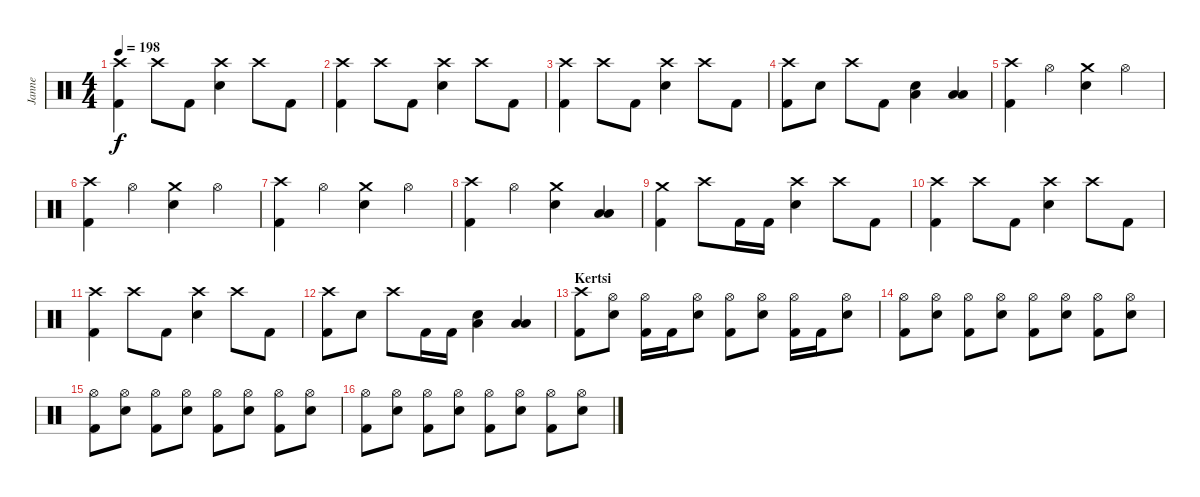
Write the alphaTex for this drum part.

\track ("Janne" "Janne") {instrument percussion}
\staff {score}
\articulation defaults
\ts (4 4)
\tempo 198
\clef neutral
\ks c
("Crash high (hit)" "Kick (hit) 2").4{dy f} "Crash high (hit)".8 "Kick (hit) 2".8 ("Crash high (hit)" "Electric Snare (hit)").4 "Crash high (hit)".8 "Kick (hit) 2".8 |
("Crash high (hit)" "Kick (hit) 2").4 "Crash high (hit)".8 "Kick (hit) 2".8 ("Crash high (hit)" "Electric Snare (hit)").4 "Crash high (hit)".8 "Kick (hit) 2".8 |
("Crash high (hit)" "Kick (hit) 2").4 "Crash high (hit)".8 "Kick (hit) 2".8 ("Crash high (hit)" "Electric Snare (hit)").4 "Crash high (hit)".8 "Kick (hit) 2".8 |
("Crash high (hit)" "Kick (hit) 2").8 "Electric Snare (hit)".8 "Crash high (hit)".8 "Kick (hit) 2".8 ("Electric Snare (hit)" "Low Floor Tom (hit)").4 ("Low Tom (hit)" "Low Floor Tom (hit)").4 |
("Crash high (hit)" "Kick (hit) 2").4 "Hi-Hat (open)".4 ("Crash medium (hit)" "Electric Snare (hit)").4 "Hi-Hat (open)".4 |
("Crash high (hit)" "Kick (hit) 2").4 "Hi-Hat (open)".4 ("Crash medium (hit)" "Electric Snare (hit)").4 "Hi-Hat (open)".4 |
("Crash high (hit)" "Kick (hit) 2").4 "Hi-Hat (open)".4 ("Crash medium (hit)" "Electric Snare (hit)").4 "Hi-Hat (open)".4 |
("Crash high (hit)" "Kick (hit) 2").4 "Hi-Hat (open)".4 ("Crash medium (hit)" "Electric Snare (hit)").4 ("Low Tom (hit)" "Low Floor Tom (hit)").4 |
("Crash medium (hit)" "Kick (hit) 2").4 "Crash high (hit)".8 "Kick (hit) 2".16 "Kick (hit) 2".16 ("Crash high (hit)" "Electric Snare (hit)").4 "Crash high (hit)".8 "Kick (hit) 2".8 |
("Crash high (hit)" "Kick (hit) 2").4 "Crash high (hit)".8 "Kick (hit) 2".8 ("Crash high (hit)" "Electric Snare (hit)").4 "Crash high (hit)".8 "Kick (hit) 2".8 |
("Crash high (hit)" "Kick (hit) 2").4 "Crash high (hit)".8 "Kick (hit) 2".8 ("Crash high (hit)" "Electric Snare (hit)").4 "Crash high (hit)".8 "Kick (hit) 2".8 |
("Crash high (hit)" "Kick (hit) 2").8 "Electric Snare (hit)".8 "Crash high (hit)".8 "Kick (hit) 2".16 "Kick (hit) 2".16 ("Electric Snare (hit)" "Low Floor Tom (hit)").4 ("Low Tom (hit)" "Low Floor Tom (hit)").4 |
\section ("" "Kertsi")
("Crash high (hit)" "Kick (hit) 2").8 ("Hi-Hat (open)" "Electric Snare (hit)").8 ("Hi-Hat (open)" "Kick (hit) 2").16 "Kick (hit) 2".16 ("Hi-Hat (open)" "Electric Snare (hit)").8 ("Hi-Hat (open)" "Kick (hit) 2").8 ("Hi-Hat (open)" "Electric Snare (hit)").8 ("Hi-Hat (open)" "Kick (hit) 2").16 "Kick (hit) 2".16 ("Hi-Hat (open)" "Electric Snare (hit)").8 |
("Hi-Hat (open)" "Kick (hit) 2").8 ("Hi-Hat (open)" "Electric Snare (hit)").8 ("Hi-Hat (open)" "Kick (hit) 2").8 ("Hi-Hat (open)" "Electric Snare (hit)").8 ("Hi-Hat (open)" "Kick (hit) 2").8 ("Hi-Hat (open)" "Electric Snare (hit)").8 ("Hi-Hat (open)" "Kick (hit) 2").8 ("Hi-Hat (open)" "Electric Snare (hit)").8 |
("Hi-Hat (open)" "Kick (hit) 2").8 ("Hi-Hat (open)" "Electric Snare (hit)").8 ("Hi-Hat (open)" "Kick (hit) 2").8 ("Hi-Hat (open)" "Electric Snare (hit)").8 ("Hi-Hat (open)" "Kick (hit) 2").8 ("Hi-Hat (open)" "Electric Snare (hit)").8 ("Hi-Hat (open)" "Kick (hit) 2").8 ("Hi-Hat (open)" "Electric Snare (hit)").8 |
("Hi-Hat (open)" "Kick (hit) 2").8 ("Hi-Hat (open)" "Electric Snare (hit)").8 ("Hi-Hat (open)" "Kick (hit) 2").8 ("Hi-Hat (open)" "Electric Snare (hit)").8 ("Hi-Hat (open)" "Kick (hit) 2").8 ("Hi-Hat (open)" "Electric Snare (hit)").8 ("Hi-Hat (open)" "Kick (hit) 2").8 ("Hi-Hat (open)" "Electric Snare (hit)").8
